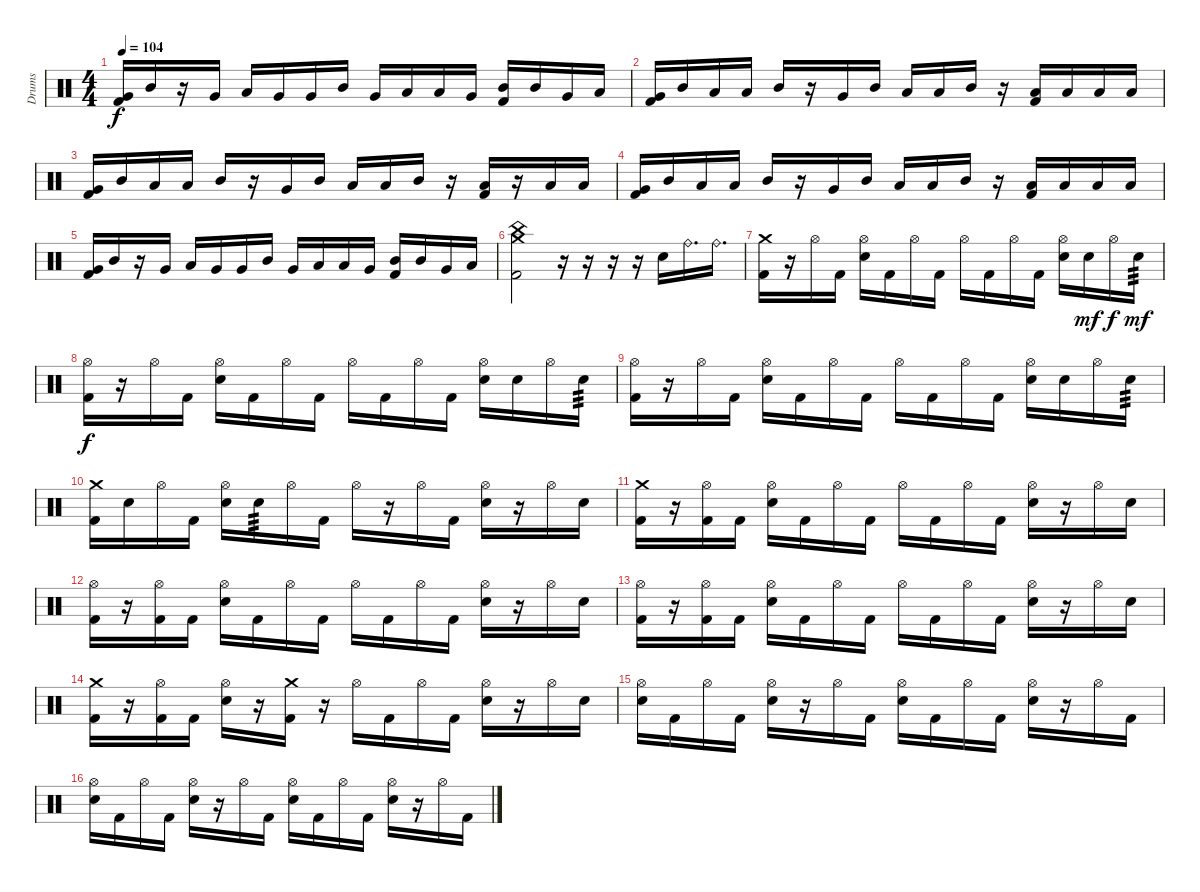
\track ("Drums" "Drums") {instrument percussion}
\staff {score}
\articulation defaults
\ts (4 4)
\tempo 104
\clef neutral
\ks c
("Very Low Tom (hit)" "Kick (hit) 2").16{dy f} "Mid Tom (hit)".16 r.16 "Very Low Tom (hit)".16 "Low Tom (hit)".16 "Very Low Tom (hit)".16 "Very Low Tom (hit)".16 "Mid Tom (hit)".16 "Very Low Tom (hit)".16 "Low Tom (hit)".16 "Low Tom (hit)".16 "Very Low Tom (hit)".16 ("Mid Tom (hit)" "Kick (hit) 2").16 "Mid Tom (hit)".16 "Very Low Tom (hit)".16 "Low Tom (hit)".16 |
("Very Low Tom (hit)" "Kick (hit) 2").16 "Mid Tom (hit)".16 "Low Tom (hit)".16 "Low Tom (hit)".16 "Mid Tom (hit)".16 r.16 "Very Low Tom (hit)".16 "Mid Tom (hit)".16 "Low Tom (hit)".16 "Low Tom (hit)".16 "Mid Tom (hit)".16 r.16 ("Low Tom (hit)" "Kick (hit) 2").16 "Low Tom (hit)".16 "Low Tom (hit)".16 "Low Tom (hit)".16 |
("Very Low Tom (hit)" "Kick (hit) 2").16 "Mid Tom (hit)".16 "Low Tom (hit)".16 "Low Tom (hit)".16 "Mid Tom (hit)".16 r.16 "Very Low Tom (hit)".16 "Mid Tom (hit)".16 "Low Tom (hit)".16 "Low Tom (hit)".16 "Mid Tom (hit)".16 r.16 ("Low Tom (hit)" "Kick (hit) 2").16 r.16 "Low Tom (hit)".16 "Low Tom (hit)".16 |
("Very Low Tom (hit)" "Kick (hit) 2").16 "Mid Tom (hit)".16 "Low Tom (hit)".16 "Low Tom (hit)".16 "Mid Tom (hit)".16 r.16 "Very Low Tom (hit)".16 "Mid Tom (hit)".16 "Low Tom (hit)".16 "Low Tom (hit)".16 "Mid Tom (hit)".16 r.16 ("Low Tom (hit)" "Kick (hit) 2").16 "Low Tom (hit)".16 "Low Tom (hit)".16 "Low Tom (hit)".16 |
("Very Low Tom (hit)" "Kick (hit) 2").16 "Mid Tom (hit)".16 r.16 "Very Low Tom (hit)".16 "Low Tom (hit)".16 "Very Low Tom (hit)".16 "Very Low Tom (hit)".16 "Mid Tom (hit)".16 "Very Low Tom (hit)".16 "Low Tom (hit)".16 "Low Tom (hit)".16 "Very Low Tom (hit)".16 ("Mid Tom (hit)" "Kick (hit) 2").16 "Mid Tom (hit)".16 "Very Low Tom (hit)".16 "Low Tom (hit)".16 |
("Crash medium (hit)" "China (hit)" "Kick (hit) 2").2 r.16 r.16 r.16 r.16 "Snare (hit) 2".16 "Ride (bell)".16{d} "Ride (bell)".16{d} |
("Crash medium (hit)" "Kick (hit) 2").16 r.16 "Hi-Hat (open)".16 "Kick (hit) 2".16 ("Hi-Hat (open)" "Snare (hit) 2").16 "Kick (hit) 2".16 "Hi-Hat (open)".16 "Kick (hit) 2".16 "Hi-Hat (open)".16 "Kick (hit) 2".16 "Hi-Hat (open)".16 "Kick (hit) 2".16 ("Hi-Hat (open)" "Snare (hit) 2").16 "Snare (hit) 2".16{dy mf} "Hi-Hat (open)".16{dy f} "Snare (hit) 2".16{tp 3 dy mf} |
("Hi-Hat (open)" "Kick (hit) 2").16{dy f} r.16 "Hi-Hat (open)".16 "Kick (hit) 2".16 ("Hi-Hat (open)" "Snare (hit) 2").16 "Kick (hit) 2".16 "Hi-Hat (open)".16 "Kick (hit) 2".16 "Hi-Hat (open)".16 "Kick (hit) 2".16 "Hi-Hat (open)".16 "Kick (hit) 2".16 ("Hi-Hat (open)" "Snare (hit) 2").16 "Snare (hit) 2".16 "Hi-Hat (open)".16 "Snare (hit) 2".16{tp 3} |
("Hi-Hat (open)" "Kick (hit) 2").16 r.16 "Hi-Hat (open)".16 "Kick (hit) 2".16 ("Hi-Hat (open)" "Snare (hit) 2").16 "Kick (hit) 2".16 "Hi-Hat (open)".16 "Kick (hit) 2".16 "Hi-Hat (open)".16 "Kick (hit) 2".16 "Hi-Hat (open)".16 "Kick (hit) 2".16 ("Hi-Hat (open)" "Snare (hit) 2").16 "Snare (hit) 2".16 "Hi-Hat (open)".16 "Snare (hit) 2".16{tp 3} |
("Crash medium (hit)" "Kick (hit) 2").16 "Snare (hit) 2".16 "Hi-Hat (open)".16 "Kick (hit) 2".16 ("Hi-Hat (open)" "Snare (hit) 2").16 "Snare (hit) 2".16{tp 3} "Hi-Hat (open)".16 "Kick (hit) 2".16 "Hi-Hat (open)".16 r.16 "Hi-Hat (open)".16 "Kick (hit) 2".16 ("Hi-Hat (open)" "Snare (hit) 2").16 r.16 "Hi-Hat (open)".16 "Snare (hit) 2".16 |
("Crash medium (hit)" "Kick (hit) 2").16 r.16 ("Hi-Hat (open)" "Kick (hit) 2").16 "Kick (hit) 2".16 ("Hi-Hat (open)" "Snare (hit) 2").16 "Kick (hit) 2".16 "Hi-Hat (open)".16 "Kick (hit) 2".16 "Hi-Hat (open)".16 "Kick (hit) 2".16 "Hi-Hat (open)".16 "Kick (hit) 2".16 ("Hi-Hat (open)" "Snare (hit) 2").16 r.16 "Hi-Hat (open)".16 "Snare (hit) 2".16 |
("Hi-Hat (open)" "Kick (hit) 2").16 r.16 ("Hi-Hat (open)" "Kick (hit) 2").16 "Kick (hit) 2".16 ("Hi-Hat (open)" "Snare (hit) 2").16 "Kick (hit) 2".16 "Hi-Hat (open)".16 "Kick (hit) 2".16 "Hi-Hat (open)".16 "Kick (hit) 2".16 "Hi-Hat (open)".16 "Kick (hit) 2".16 ("Hi-Hat (open)" "Snare (hit) 2").16 r.16 "Hi-Hat (open)".16 "Snare (hit) 2".16 |
("Hi-Hat (open)" "Kick (hit) 2").16 r.16 ("Hi-Hat (open)" "Kick (hit) 2").16 "Kick (hit) 2".16 ("Hi-Hat (open)" "Snare (hit) 2").16 "Kick (hit) 2".16 "Hi-Hat (open)".16 "Kick (hit) 2".16 "Hi-Hat (open)".16 "Kick (hit) 2".16 "Hi-Hat (open)".16 "Kick (hit) 2".16 ("Hi-Hat (open)" "Snare (hit) 2").16 r.16 "Hi-Hat (open)".16 "Snare (hit) 2".16 |
("Crash medium (hit)" "Kick (hit) 2").16 r.16 ("Hi-Hat (open)" "Kick (hit) 2").16 "Kick (hit) 2".16 ("Hi-Hat (open)" "Snare (hit) 2").16 r.16 ("Crash medium (hit)" "Kick (hit) 2").16 r.16 "Hi-Hat (open)".16 "Kick (hit) 2".16 "Hi-Hat (open)".16 "Kick (hit) 2".16 ("Hi-Hat (open)" "Snare (hit) 2").16 r.16 "Hi-Hat (open)".16 "Snare (hit) 2".16 |
("Hi-Hat (open)" "Snare (hit) 2").16 "Kick (hit) 2".16 "Hi-Hat (open)".16 "Kick (hit) 2".16 ("Hi-Hat (open)" "Snare (hit) 2").16 r.16 "Hi-Hat (open)".16 "Kick (hit) 2".16 ("Hi-Hat (open)" "Snare (hit) 2").16 "Kick (hit) 2".16 "Hi-Hat (open)".16 "Kick (hit) 2".16 ("Hi-Hat (open)" "Snare (hit) 2").16 r.16 "Hi-Hat (open)".16 "Kick (hit) 2".16 |
("Hi-Hat (open)" "Snare (hit) 2").16 "Kick (hit) 2".16 "Hi-Hat (open)".16 "Kick (hit) 2".16 ("Hi-Hat (open)" "Snare (hit) 2").16 r.16 "Hi-Hat (open)".16 "Kick (hit) 2".16 ("Hi-Hat (open)" "Snare (hit) 2").16 "Kick (hit) 2".16 "Hi-Hat (open)".16 "Kick (hit) 2".16 ("Hi-Hat (open)" "Snare (hit) 2").16 r.16 "Hi-Hat (open)".16 "Kick (hit) 2".16
